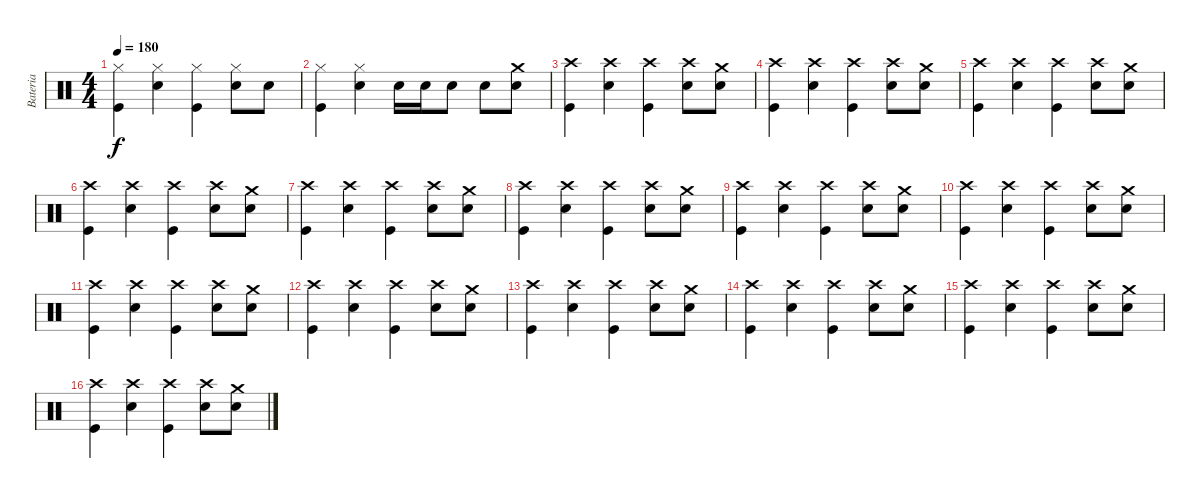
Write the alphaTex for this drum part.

\track ("Bateria" "Bateria") {instrument percussion}
\staff {score}
\articulation defaults
\ts (4 4)
\tempo 180
\clef neutral
\ks c
("Hi-Hat (closed)" "Kick (hit)").4{dy f} ("Hi-Hat (closed)" "Electric Snare (hit)").4 ("Hi-Hat (closed)" "Kick (hit)").4 ("Hi-Hat (closed)" "Electric Snare (hit)").8 "Electric Snare (hit)".8 |
("Hi-Hat (closed)" "Kick (hit)").4 ("Hi-Hat (closed)" "Electric Snare (hit)").4 "Electric Snare (hit)".16 "Electric Snare (hit)".16 "Electric Snare (hit)".8 "Electric Snare (hit)".8 ("Crash medium (hit)" "Electric Snare (hit)").8 |
("Crash high (hit)" "Kick (hit)").4 ("Crash high (hit)" "Electric Snare (hit)").4 ("Crash high (hit)" "Kick (hit)").4 ("Crash high (hit)" "Electric Snare (hit)").8 ("Crash medium (hit)" "Electric Snare (hit)").8 |
("Crash high (hit)" "Kick (hit)").4 ("Crash high (hit)" "Electric Snare (hit)").4 ("Crash high (hit)" "Kick (hit)").4 ("Crash high (hit)" "Electric Snare (hit)").8 ("Crash medium (hit)" "Electric Snare (hit)").8 |
("Crash high (hit)" "Kick (hit)").4 ("Crash high (hit)" "Electric Snare (hit)").4 ("Crash high (hit)" "Kick (hit)").4 ("Crash high (hit)" "Electric Snare (hit)").8 ("Crash medium (hit)" "Electric Snare (hit)").8 |
("Crash high (hit)" "Kick (hit)").4 ("Crash high (hit)" "Electric Snare (hit)").4 ("Crash high (hit)" "Kick (hit)").4 ("Crash high (hit)" "Electric Snare (hit)").8 ("Crash medium (hit)" "Electric Snare (hit)").8 |
("Crash high (hit)" "Kick (hit)").4 ("Crash high (hit)" "Electric Snare (hit)").4 ("Crash high (hit)" "Kick (hit)").4 ("Crash high (hit)" "Electric Snare (hit)").8 ("Crash medium (hit)" "Electric Snare (hit)").8 |
("Crash high (hit)" "Kick (hit)").4 ("Crash high (hit)" "Electric Snare (hit)").4 ("Crash high (hit)" "Kick (hit)").4 ("Crash high (hit)" "Electric Snare (hit)").8 ("Crash medium (hit)" "Electric Snare (hit)").8 |
("Crash high (hit)" "Kick (hit)").4 ("Crash high (hit)" "Electric Snare (hit)").4 ("Crash high (hit)" "Kick (hit)").4 ("Crash high (hit)" "Electric Snare (hit)").8 ("Crash medium (hit)" "Electric Snare (hit)").8 |
("Crash high (hit)" "Kick (hit)").4 ("Crash high (hit)" "Electric Snare (hit)").4 ("Crash high (hit)" "Kick (hit)").4 ("Crash high (hit)" "Electric Snare (hit)").8 ("Crash medium (hit)" "Electric Snare (hit)").8 |
("Crash high (hit)" "Kick (hit)").4 ("Crash high (hit)" "Electric Snare (hit)").4 ("Crash high (hit)" "Kick (hit)").4 ("Crash high (hit)" "Electric Snare (hit)").8 ("Crash medium (hit)" "Electric Snare (hit)").8 |
("Crash high (hit)" "Kick (hit)").4 ("Crash high (hit)" "Electric Snare (hit)").4 ("Crash high (hit)" "Kick (hit)").4 ("Crash high (hit)" "Electric Snare (hit)").8 ("Crash medium (hit)" "Electric Snare (hit)").8 |
("Crash high (hit)" "Kick (hit)").4 ("Crash high (hit)" "Electric Snare (hit)").4 ("Crash high (hit)" "Kick (hit)").4 ("Crash high (hit)" "Electric Snare (hit)").8 ("Crash medium (hit)" "Electric Snare (hit)").8 |
("Crash high (hit)" "Kick (hit)").4 ("Crash high (hit)" "Electric Snare (hit)").4 ("Crash high (hit)" "Kick (hit)").4 ("Crash high (hit)" "Electric Snare (hit)").8 ("Crash medium (hit)" "Electric Snare (hit)").8 |
("Crash high (hit)" "Kick (hit)").4 ("Crash high (hit)" "Electric Snare (hit)").4 ("Crash high (hit)" "Kick (hit)").4 ("Crash high (hit)" "Electric Snare (hit)").8 ("Crash medium (hit)" "Electric Snare (hit)").8 |
("Crash high (hit)" "Kick (hit)").4 ("Crash high (hit)" "Electric Snare (hit)").4 ("Crash high (hit)" "Kick (hit)").4 ("Crash high (hit)" "Electric Snare (hit)").8 ("Crash medium (hit)" "Electric Snare (hit)").8
